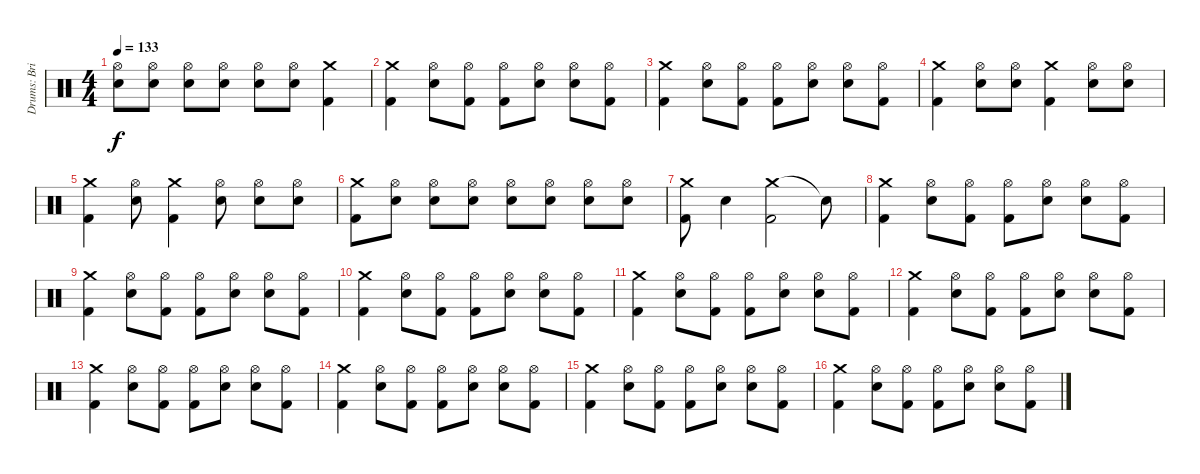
\track ("Drums: Brian Mantila" "Drums: Bri") {instrument percussion}
\staff {score}
\articulation defaults
\ts (4 4)
\tempo 133
\clef neutral
\ks c
("Electric Snare (hit)" "Hi-Hat (open)").8{dy f} ("Electric Snare (hit)" "Hi-Hat (open)").8 ("Electric Snare (hit)" "Hi-Hat (open)").8 ("Electric Snare (hit)" "Hi-Hat (open)").8 ("Electric Snare (hit)" "Hi-Hat (open)").8 ("Electric Snare (hit)" "Hi-Hat (open)").8 ("Crash medium (hit)" "Kick (hit) 2").4 |
("Crash medium (hit)" "Kick (hit) 2").4 ("Electric Snare (hit)" "Hi-Hat (open)").8 ("Kick (hit) 2" "Hi-Hat (open)").8 ("Kick (hit) 2" "Hi-Hat (open)").8 ("Electric Snare (hit)" "Hi-Hat (open)").8 ("Electric Snare (hit)" "Hi-Hat (open)").8 ("Kick (hit) 2" "Hi-Hat (open)").8 |
("Crash medium (hit)" "Kick (hit) 2").4 ("Electric Snare (hit)" "Hi-Hat (open)").8 ("Kick (hit) 2" "Hi-Hat (open)").8 ("Kick (hit) 2" "Hi-Hat (open)").8 ("Electric Snare (hit)" "Hi-Hat (open)").8 ("Electric Snare (hit)" "Hi-Hat (open)").8 ("Kick (hit) 2" "Hi-Hat (open)").8 |
("Crash medium (hit)" "Kick (hit) 2").4 ("Electric Snare (hit)" "Hi-Hat (open)").8 ("Electric Snare (hit)" "Hi-Hat (open)").8 ("Crash medium (hit)" "Kick (hit) 2").4 ("Electric Snare (hit)" "Hi-Hat (open)").8 ("Electric Snare (hit)" "Hi-Hat (open)").8 |
("Crash medium (hit)" "Kick (hit) 2").4 ("Electric Snare (hit)" "Hi-Hat (open)").8 ("Crash medium (hit)" "Kick (hit) 2").4 ("Electric Snare (hit)" "Hi-Hat (open)").8 ("Electric Snare (hit)" "Hi-Hat (open)").8 ("Electric Snare (hit)" "Hi-Hat (open)").8 |
("Crash medium (hit)" "Kick (hit) 2").8 ("Electric Snare (hit)" "Hi-Hat (open)").8 ("Electric Snare (hit)" "Hi-Hat (open)").8 ("Electric Snare (hit)" "Hi-Hat (open)").8 ("Electric Snare (hit)" "Hi-Hat (open)").8 ("Electric Snare (hit)" "Hi-Hat (open)").8 ("Electric Snare (hit)" "Hi-Hat (open)").8 ("Electric Snare (hit)" "Hi-Hat (open)").8 |
("Crash medium (hit)" "Kick (hit) 2").8 "Electric Snare (hit)".4 ("Crash medium (hit)" "Kick (hit) 2").2 "Snare (hit)"{t}.8 |
("Crash medium (hit)" "Kick (hit) 2").4 ("Electric Snare (hit)" "Hi-Hat (open)").8 ("Kick (hit) 2" "Hi-Hat (open)").8 ("Kick (hit) 2" "Hi-Hat (open)").8 ("Electric Snare (hit)" "Hi-Hat (open)").8 ("Electric Snare (hit)" "Hi-Hat (open)").8 ("Kick (hit) 2" "Hi-Hat (open)").8 |
("Crash medium (hit)" "Kick (hit) 2").4 ("Electric Snare (hit)" "Hi-Hat (open)").8 ("Kick (hit) 2" "Hi-Hat (open)").8 ("Kick (hit) 2" "Hi-Hat (open)").8 ("Electric Snare (hit)" "Hi-Hat (open)").8 ("Electric Snare (hit)" "Hi-Hat (open)").8 ("Kick (hit) 2" "Hi-Hat (open)").8 |
("Crash medium (hit)" "Kick (hit) 2").4 ("Electric Snare (hit)" "Hi-Hat (open)").8 ("Kick (hit) 2" "Hi-Hat (open)").8 ("Kick (hit) 2" "Hi-Hat (open)").8 ("Electric Snare (hit)" "Hi-Hat (open)").8 ("Electric Snare (hit)" "Hi-Hat (open)").8 ("Kick (hit) 2" "Hi-Hat (open)").8 |
("Crash medium (hit)" "Kick (hit) 2").4 ("Electric Snare (hit)" "Hi-Hat (open)").8 ("Kick (hit) 2" "Hi-Hat (open)").8 ("Kick (hit) 2" "Hi-Hat (open)").8 ("Electric Snare (hit)" "Hi-Hat (open)").8 ("Electric Snare (hit)" "Hi-Hat (open)").8 ("Kick (hit) 2" "Hi-Hat (open)").8 |
("Crash medium (hit)" "Kick (hit) 2").4 ("Electric Snare (hit)" "Hi-Hat (open)").8 ("Kick (hit) 2" "Hi-Hat (open)").8 ("Kick (hit) 2" "Hi-Hat (open)").8 ("Electric Snare (hit)" "Hi-Hat (open)").8 ("Electric Snare (hit)" "Hi-Hat (open)").8 ("Kick (hit) 2" "Hi-Hat (open)").8 |
("Crash medium (hit)" "Kick (hit) 2").4 ("Electric Snare (hit)" "Hi-Hat (open)").8 ("Kick (hit) 2" "Hi-Hat (open)").8 ("Kick (hit) 2" "Hi-Hat (open)").8 ("Electric Snare (hit)" "Hi-Hat (open)").8 ("Electric Snare (hit)" "Hi-Hat (open)").8 ("Kick (hit) 2" "Hi-Hat (open)").8 |
("Crash medium (hit)" "Kick (hit) 2").4 ("Electric Snare (hit)" "Hi-Hat (open)").8 ("Kick (hit) 2" "Hi-Hat (open)").8 ("Kick (hit) 2" "Hi-Hat (open)").8 ("Electric Snare (hit)" "Hi-Hat (open)").8 ("Electric Snare (hit)" "Hi-Hat (open)").8 ("Kick (hit) 2" "Hi-Hat (open)").8 |
("Crash medium (hit)" "Kick (hit) 2").4 ("Electric Snare (hit)" "Hi-Hat (open)").8 ("Kick (hit) 2" "Hi-Hat (open)").8 ("Kick (hit) 2" "Hi-Hat (open)").8 ("Electric Snare (hit)" "Hi-Hat (open)").8 ("Electric Snare (hit)" "Hi-Hat (open)").8 ("Kick (hit) 2" "Hi-Hat (open)").8 |
("Crash medium (hit)" "Kick (hit) 2").4 ("Electric Snare (hit)" "Hi-Hat (open)").8 ("Kick (hit) 2" "Hi-Hat (open)").8 ("Kick (hit) 2" "Hi-Hat (open)").8 ("Electric Snare (hit)" "Hi-Hat (open)").8 ("Electric Snare (hit)" "Hi-Hat (open)").8 ("Kick (hit) 2" "Hi-Hat (open)").8
